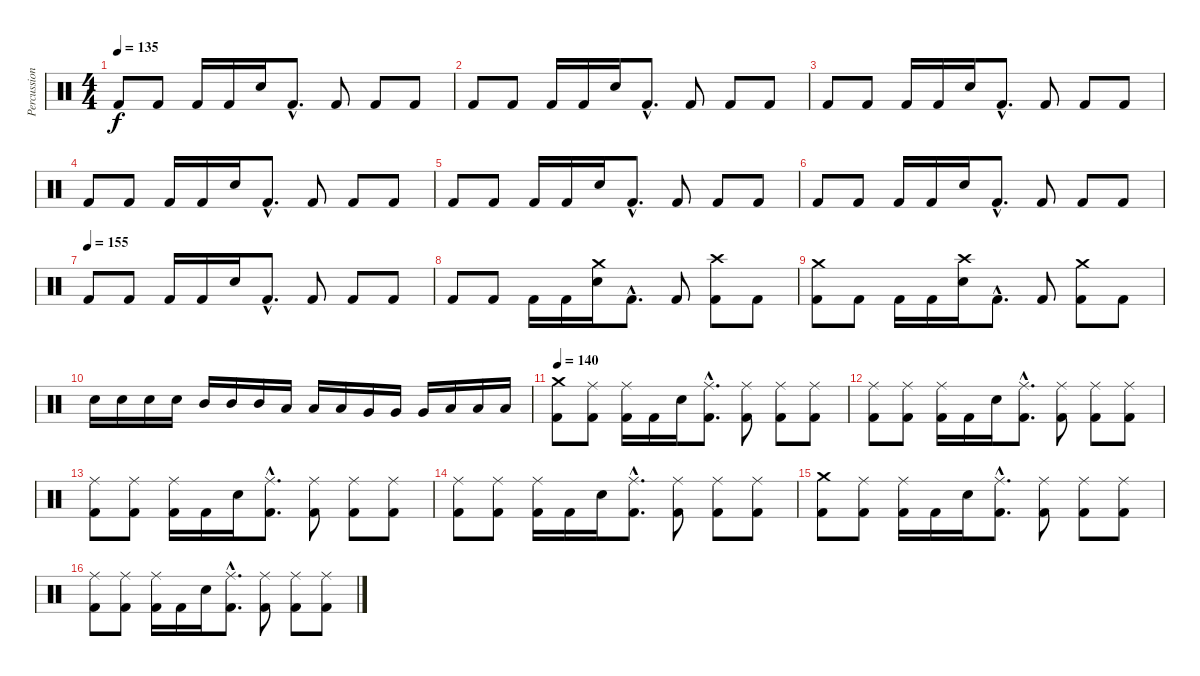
\track ("Percussion" "Percussion") {instrument percussion}
\staff {score}
\articulation defaults
\ts (4 4)
\tempo 135
\clef neutral
\ks c "Kick (hit) 2".8{dy f} "Kick (hit) 2".8 "Kick (hit) 2".16 "Kick (hit) 2".16 "Electric Snare (hit)".16 "Kick (hit) 2"{hac}.8{d} "Kick (hit) 2".8 "Kick (hit) 2".8 "Kick (hit) 2".8
|
"Kick (hit) 2".8 "Kick (hit) 2".8 "Kick (hit) 2".16 "Kick (hit) 2".16 "Electric Snare (hit)".16 "Kick (hit) 2"{hac}.8{d} "Kick (hit) 2".8 "Kick (hit) 2".8 "Kick (hit) 2".8 |
"Kick (hit) 2".8 "Kick (hit) 2".8 "Kick (hit) 2".16 "Kick (hit) 2".16 "Electric Snare (hit)".16 "Kick (hit) 2"{hac}.8{d} "Kick (hit) 2".8 "Kick (hit) 2".8 "Kick (hit) 2".8 |
"Kick (hit) 2".8 "Kick (hit) 2".8 "Kick (hit) 2".16 "Kick (hit) 2".16 "Electric Snare (hit)".16 "Kick (hit) 2"{hac}.8{d} "Kick (hit) 2".8 "Kick (hit) 2".8 "Kick (hit) 2".8 |
"Kick (hit) 2".8 "Kick (hit) 2".8 "Kick (hit) 2".16 "Kick (hit) 2".16 "Electric Snare (hit)".16 "Kick (hit) 2"{hac}.8{d} "Kick (hit) 2".8 "Kick (hit) 2".8 "Kick (hit) 2".8 |
"Kick (hit) 2".8 "Kick (hit) 2".8 "Kick (hit) 2".16 "Kick (hit) 2".16 "Electric Snare (hit)".16 "Kick (hit) 2"{hac}.8{d} "Kick (hit) 2".8 "Kick (hit) 2".8 "Kick (hit) 2".8 |
\tempo 150
\tempo (155)
"Kick (hit) 2".8 "Kick (hit) 2".8 "Kick (hit) 2".16 "Kick (hit) 2".16 "Electric Snare (hit)".16 "Kick (hit) 2"{hac}.8{d} "Kick (hit) 2".8 "Kick (hit) 2".8 "Kick (hit) 2".8 |
"Kick (hit) 2".8 "Kick (hit) 2".8 "Kick (hit) 2".16 "Kick (hit) 2".16 ("Crash medium (hit)" "Electric Snare (hit)").16 "Kick (hit) 2"{hac}.8{d} "Kick (hit) 2".8 ("Crash high (hit)" "Kick (hit) 2").8 "Kick (hit) 2".8 |
("Crash medium (hit)" "Kick (hit) 2").8 "Kick (hit) 2".8 "Kick (hit) 2".16 "Kick (hit) 2".16 ("Crash high (hit)" "Electric Snare (hit)").16 "Kick (hit) 2"{hac}.8{d} "Kick (hit) 2".8 ("Crash medium (hit)" "Kick (hit) 2").8 "Kick (hit) 2".8 |
"Electric Snare (hit)".16 "Electric Snare (hit)".16 "Electric Snare (hit)".16 "Electric Snare (hit)".16 "Mid Tom (hit)".16 "Mid Tom (hit)".16 "Mid Tom (hit)".16 "Low Tom (hit)".16 "Low Tom (hit)".16 "Low Tom (hit)".16 "Very Low Tom (hit)".16 "Very Low Tom (hit)".16 "Very Low Tom (hit)".16 "Low Floor Tom (hit)".16 "Low Floor Tom (hit)".16 "Low Floor Tom (hit)".16 |
\tempo 140
("Crash medium (hit)" "Kick (hit) 2").8 ("Ride (middle)" "Kick (hit) 2").8 ("Ride (middle)" "Kick (hit) 2").16 "Kick (hit) 2".16 "Electric Snare (hit)".16 ("Ride (middle)"{hac} "Kick (hit) 2"{hac}).8{d} ("Ride (middle)" "Kick (hit) 2").8 ("Ride (middle)" "Kick (hit) 2").8 ("Ride (middle)" "Kick (hit) 2").8 |
("Ride (middle)" "Kick (hit) 2").8 ("Ride (middle)" "Kick (hit) 2").8 ("Ride (middle)" "Kick (hit) 2").16 "Kick (hit) 2".16 "Electric Snare (hit)".16 ("Ride (middle)"{hac} "Kick (hit) 2"{hac}).8{d} ("Ride (middle)" "Kick (hit) 2").8 ("Ride (middle)" "Kick (hit) 2").8 ("Ride (middle)" "Kick (hit) 2").8 |
("Ride (middle)" "Kick (hit) 2").8 ("Ride (middle)" "Kick (hit) 2").8 ("Ride (middle)" "Kick (hit) 2").16 "Kick (hit) 2".16 "Electric Snare (hit)".16 ("Ride (middle)"{hac} "Kick (hit) 2"{hac}).8{d} ("Ride (middle)" "Kick (hit) 2").8 ("Ride (middle)" "Kick (hit) 2").8 ("Ride (middle)" "Kick (hit) 2").8 |
("Ride (middle)" "Kick (hit) 2").8 ("Ride (middle)" "Kick (hit) 2").8 ("Ride (middle)" "Kick (hit) 2").16 "Kick (hit) 2".16 "Electric Snare (hit)".16 ("Ride (middle)"{hac} "Kick (hit) 2"{hac}).8{d} ("Ride (middle)" "Kick (hit) 2").8 ("Ride (middle)" "Kick (hit) 2").8 ("Ride (middle)" "Kick (hit) 2").8 |
("Crash medium (hit)" "Kick (hit) 2").8 ("Ride (middle)" "Kick (hit) 2").8 ("Ride (middle)" "Kick (hit) 2").16 "Kick (hit) 2".16 "Electric Snare (hit)".16 ("Ride (middle)"{hac} "Kick (hit) 2"{hac}).8{d} ("Ride (middle)" "Kick (hit) 2").8 ("Ride (middle)" "Kick (hit) 2").8 ("Ride (middle)" "Kick (hit) 2").8 |
("Ride (middle)" "Kick (hit) 2").8 ("Ride (middle)" "Kick (hit) 2").8 ("Ride (middle)" "Kick (hit) 2").16 "Kick (hit) 2".16 "Electric Snare (hit)".16 ("Ride (middle)"{hac} "Kick (hit) 2"{hac}).8{d} ("Ride (middle)" "Kick (hit) 2").8 ("Ride (middle)" "Kick (hit) 2").8 ("Ride (middle)" "Kick (hit) 2").8
